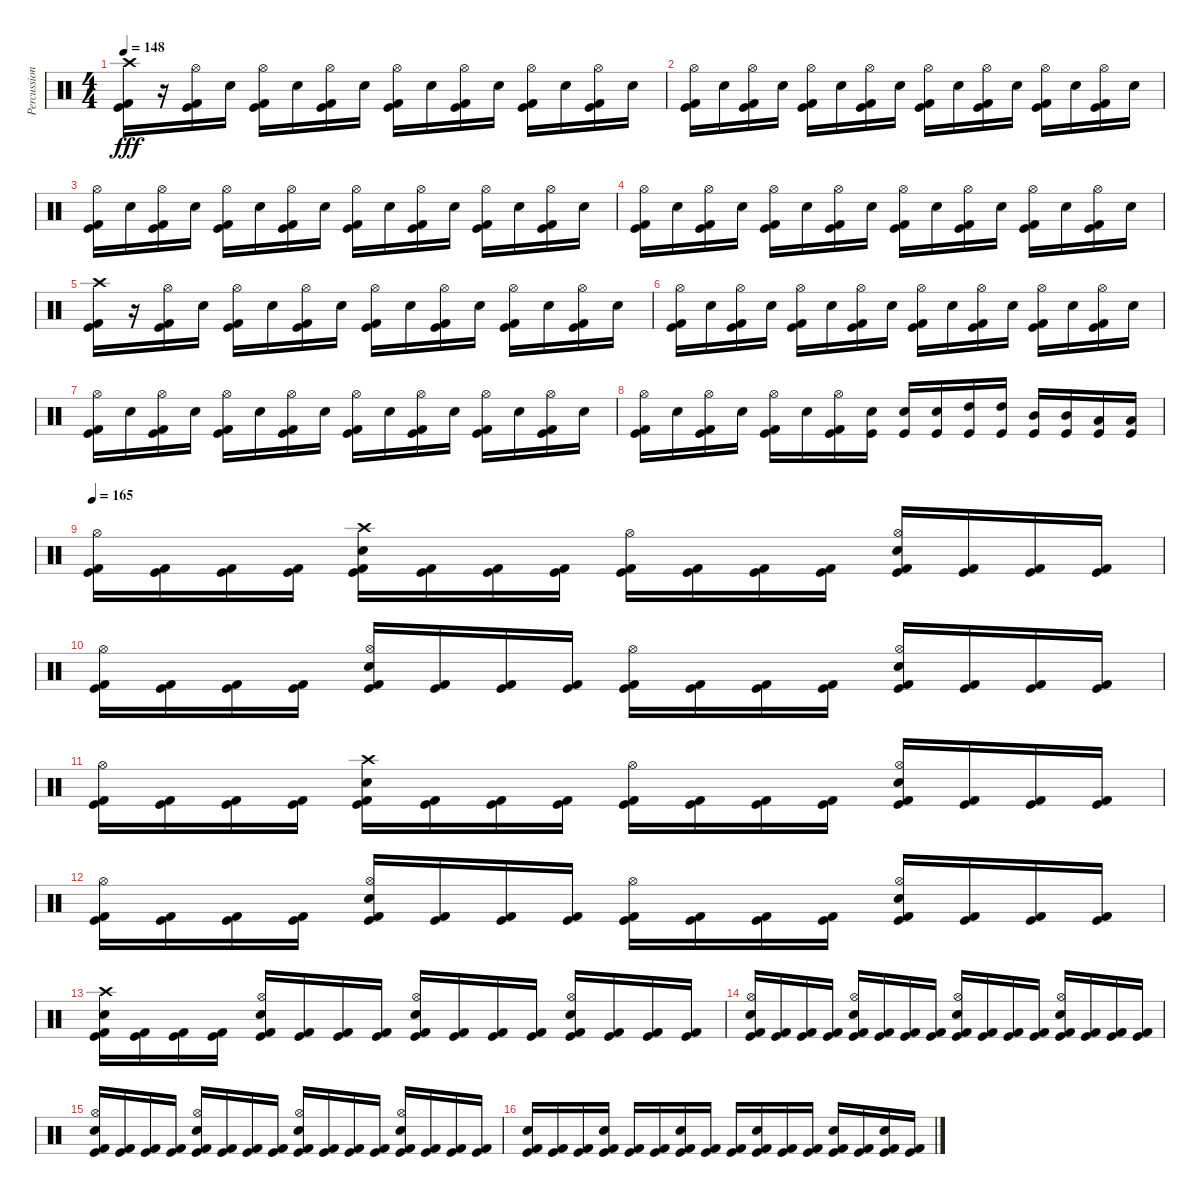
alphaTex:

\track ("Percussion" "Percussion") {instrument percussion}
\staff {score}
\articulation defaults
\ts (4 4)
\tempo 148
\clef neutral
\ks c
("Crash high (hit)" "Kick (hit) 2" "Kick (hit)").16{dy fff} r.16 ("Hi-Hat (open)" "Kick (hit) 2" "Kick (hit)").16 "Electric Snare (hit)".16 ("Hi-Hat (open)" "Kick (hit) 2" "Kick (hit)").16 "Electric Snare (hit)".16 ("Hi-Hat (open)" "Kick (hit) 2" "Kick (hit)").16 "Electric Snare (hit)".16 ("Hi-Hat (open)" "Kick (hit) 2" "Kick (hit)").16 "Electric Snare (hit)".16 ("Hi-Hat (open)" "Kick (hit) 2" "Kick (hit)").16 "Electric Snare (hit)".16 ("Hi-Hat (open)" "Kick (hit) 2" "Kick (hit)").16 "Electric Snare (hit)".16 ("Hi-Hat (open)" "Kick (hit) 2" "Kick (hit)").16 "Electric Snare (hit)".16 |
("Hi-Hat (open)" "Kick (hit) 2" "Kick (hit)").16 "Electric Snare (hit)".16 ("Hi-Hat (open)" "Kick (hit) 2" "Kick (hit)").16 "Electric Snare (hit)".16 ("Hi-Hat (open)" "Kick (hit) 2" "Kick (hit)").16 "Electric Snare (hit)".16 ("Hi-Hat (open)" "Kick (hit) 2" "Kick (hit)").16 "Electric Snare (hit)".16 ("Hi-Hat (open)" "Kick (hit) 2" "Kick (hit)").16 "Electric Snare (hit)".16 ("Hi-Hat (open)" "Kick (hit) 2" "Kick (hit)").16 "Electric Snare (hit)".16 ("Hi-Hat (open)" "Kick (hit) 2" "Kick (hit)").16 "Electric Snare (hit)".16 ("Hi-Hat (open)" "Kick (hit) 2" "Kick (hit)").16 "Electric Snare (hit)".16 |
("Hi-Hat (open)" "Kick (hit) 2" "Kick (hit)").16 "Electric Snare (hit)".16 ("Hi-Hat (open)" "Kick (hit) 2" "Kick (hit)").16 "Electric Snare (hit)".16 ("Hi-Hat (open)" "Kick (hit) 2" "Kick (hit)").16 "Electric Snare (hit)".16 ("Hi-Hat (open)" "Kick (hit) 2" "Kick (hit)").16 "Electric Snare (hit)".16 ("Hi-Hat (open)" "Kick (hit) 2" "Kick (hit)").16 "Electric Snare (hit)".16 ("Hi-Hat (open)" "Kick (hit) 2" "Kick (hit)").16 "Electric Snare (hit)".16 ("Hi-Hat (open)" "Kick (hit) 2" "Kick (hit)").16 "Electric Snare (hit)".16 ("Hi-Hat (open)" "Kick (hit) 2" "Kick (hit)").16 "Electric Snare (hit)".16 |
("Hi-Hat (open)" "Kick (hit) 2" "Kick (hit)").16 "Electric Snare (hit)".16 ("Hi-Hat (open)" "Kick (hit) 2" "Kick (hit)").16 "Electric Snare (hit)".16 ("Hi-Hat (open)" "Kick (hit) 2" "Kick (hit)").16 "Electric Snare (hit)".16 ("Hi-Hat (open)" "Kick (hit) 2" "Kick (hit)").16 "Electric Snare (hit)".16 ("Hi-Hat (open)" "Kick (hit) 2" "Kick (hit)").16 "Electric Snare (hit)".16 ("Hi-Hat (open)" "Kick (hit) 2" "Kick (hit)").16 "Electric Snare (hit)".16 ("Hi-Hat (open)" "Kick (hit) 2" "Kick (hit)").16 "Electric Snare (hit)".16 ("Hi-Hat (open)" "Kick (hit) 2" "Kick (hit)").16 "Electric Snare (hit)".16 |
("Crash high (hit)" "Kick (hit) 2" "Kick (hit)").16 r.16 ("Hi-Hat (open)" "Kick (hit) 2" "Kick (hit)").16 "Electric Snare (hit)".16 ("Hi-Hat (open)" "Kick (hit) 2" "Kick (hit)").16 "Electric Snare (hit)".16 ("Hi-Hat (open)" "Kick (hit) 2" "Kick (hit)").16 "Electric Snare (hit)".16 ("Hi-Hat (open)" "Kick (hit) 2" "Kick (hit)").16 "Electric Snare (hit)".16 ("Hi-Hat (open)" "Kick (hit) 2" "Kick (hit)").16 "Electric Snare (hit)".16 ("Hi-Hat (open)" "Kick (hit) 2" "Kick (hit)").16 "Electric Snare (hit)".16 ("Hi-Hat (open)" "Kick (hit) 2" "Kick (hit)").16 "Electric Snare (hit)".16 |
("Hi-Hat (open)" "Kick (hit) 2" "Kick (hit)").16 "Electric Snare (hit)".16 ("Hi-Hat (open)" "Kick (hit) 2" "Kick (hit)").16 "Electric Snare (hit)".16 ("Hi-Hat (open)" "Kick (hit) 2" "Kick (hit)").16 "Electric Snare (hit)".16 ("Hi-Hat (open)" "Kick (hit) 2" "Kick (hit)").16 "Electric Snare (hit)".16 ("Hi-Hat (open)" "Kick (hit) 2" "Kick (hit)").16 "Electric Snare (hit)".16 ("Hi-Hat (open)" "Kick (hit) 2" "Kick (hit)").16 "Electric Snare (hit)".16 ("Hi-Hat (open)" "Kick (hit) 2" "Kick (hit)").16 "Electric Snare (hit)".16 ("Hi-Hat (open)" "Kick (hit) 2" "Kick (hit)").16 "Electric Snare (hit)".16 |
("Hi-Hat (open)" "Kick (hit) 2" "Kick (hit)").16 "Electric Snare (hit)".16 ("Hi-Hat (open)" "Kick (hit) 2" "Kick (hit)").16 "Electric Snare (hit)".16 ("Hi-Hat (open)" "Kick (hit) 2" "Kick (hit)").16 "Electric Snare (hit)".16 ("Hi-Hat (open)" "Kick (hit) 2" "Kick (hit)").16 "Electric Snare (hit)".16 ("Hi-Hat (open)" "Kick (hit) 2" "Kick (hit)").16 "Electric Snare (hit)".16 ("Hi-Hat (open)" "Kick (hit) 2" "Kick (hit)").16 "Electric Snare (hit)".16 ("Hi-Hat (open)" "Kick (hit) 2" "Kick (hit)").16 "Electric Snare (hit)".16 ("Hi-Hat (open)" "Kick (hit) 2" "Kick (hit)").16 "Electric Snare (hit)".16 |
("Hi-Hat (open)" "Kick (hit) 2" "Kick (hit)").16 "Electric Snare (hit)".16 ("Hi-Hat (open)" "Kick (hit) 2" "Kick (hit)").16 "Electric Snare (hit)".16 ("Hi-Hat (open)" "Kick (hit) 2" "Kick (hit)").16 "Electric Snare (hit)".16 ("Hi-Hat (open)" "Kick (hit) 2" "Kick (hit)").16 ("Electric Snare (hit)" "Kick (hit)").16 ("Electric Snare (hit)" "Kick (hit)").16 ("Electric Snare (hit)" "Kick (hit)").16 ("High Tom (hit)" "Kick (hit)").16 ("High Tom (hit)" "Kick (hit)").16 ("Mid Tom (hit)" "Kick (hit)").16 ("Mid Tom (hit)" "Kick (hit)").16 ("Low Tom (hit)" "Kick (hit)").16 ("Low Tom (hit)" "Kick (hit)").16 |
\tempo 165
("Hi-Hat (open)" "Kick (hit) 2" "Kick (hit)").16 ("Kick (hit) 2" "Kick (hit)").16 ("Kick (hit) 2" "Kick (hit)").16 ("Kick (hit) 2" "Kick (hit)").16 ("Crash high (hit)" "Electric Snare (hit)" "Kick (hit) 2" "Kick (hit)").16 ("Kick (hit) 2" "Kick (hit)").16 ("Kick (hit) 2" "Kick (hit)").16 ("Kick (hit) 2" "Kick (hit)").16 ("Hi-Hat (open)" "Kick (hit) 2" "Kick (hit)").16 ("Kick (hit) 2" "Kick (hit)").16 ("Kick (hit) 2" "Kick (hit)").16 ("Kick (hit) 2" "Kick (hit)").16 ("Hi-Hat (open)" "Electric Snare (hit)" "Kick (hit) 2" "Kick (hit)").16 ("Kick (hit) 2" "Kick (hit)").16 ("Kick (hit) 2" "Kick (hit)").16 ("Kick (hit) 2" "Kick (hit)").16 |
("Hi-Hat (open)" "Kick (hit) 2" "Kick (hit)").16 ("Kick (hit) 2" "Kick (hit)").16 ("Kick (hit) 2" "Kick (hit)").16 ("Kick (hit) 2" "Kick (hit)").16 ("Hi-Hat (open)" "Electric Snare (hit)" "Kick (hit) 2" "Kick (hit)").16 ("Kick (hit) 2" "Kick (hit)").16 ("Kick (hit) 2" "Kick (hit)").16 ("Kick (hit) 2" "Kick (hit)").16 ("Hi-Hat (open)" "Kick (hit) 2" "Kick (hit)").16 ("Kick (hit) 2" "Kick (hit)").16 ("Kick (hit) 2" "Kick (hit)").16 ("Kick (hit) 2" "Kick (hit)").16 ("Hi-Hat (open)" "Electric Snare (hit)" "Kick (hit) 2" "Kick (hit)").16 ("Kick (hit) 2" "Kick (hit)").16 ("Kick (hit) 2" "Kick (hit)").16 ("Kick (hit) 2" "Kick (hit)").16 |
("Hi-Hat (open)" "Kick (hit) 2" "Kick (hit)").16 ("Kick (hit) 2" "Kick (hit)").16 ("Kick (hit) 2" "Kick (hit)").16 ("Kick (hit) 2" "Kick (hit)").16 ("Crash high (hit)" "Electric Snare (hit)" "Kick (hit) 2" "Kick (hit)").16 ("Kick (hit) 2" "Kick (hit)").16 ("Kick (hit) 2" "Kick (hit)").16 ("Kick (hit) 2" "Kick (hit)").16 ("Hi-Hat (open)" "Kick (hit) 2" "Kick (hit)").16 ("Kick (hit) 2" "Kick (hit)").16 ("Kick (hit) 2" "Kick (hit)").16 ("Kick (hit) 2" "Kick (hit)").16 ("Hi-Hat (open)" "Electric Snare (hit)" "Kick (hit) 2" "Kick (hit)").16 ("Kick (hit) 2" "Kick (hit)").16 ("Kick (hit) 2" "Kick (hit)").16 ("Kick (hit) 2" "Kick (hit)").16 |
("Hi-Hat (open)" "Kick (hit) 2" "Kick (hit)").16 ("Kick (hit) 2" "Kick (hit)").16 ("Kick (hit) 2" "Kick (hit)").16 ("Kick (hit) 2" "Kick (hit)").16 ("Hi-Hat (open)" "Electric Snare (hit)" "Kick (hit) 2" "Kick (hit)").16 ("Kick (hit) 2" "Kick (hit)").16 ("Kick (hit) 2" "Kick (hit)").16 ("Kick (hit) 2" "Kick (hit)").16 ("Hi-Hat (open)" "Kick (hit) 2" "Kick (hit)").16 ("Kick (hit) 2" "Kick (hit)").16 ("Kick (hit) 2" "Kick (hit)").16 ("Kick (hit) 2" "Kick (hit)").16 ("Hi-Hat (open)" "Electric Snare (hit)" "Kick (hit) 2" "Kick (hit)").16 ("Kick (hit) 2" "Kick (hit)").16 ("Kick (hit) 2" "Kick (hit)").16 ("Kick (hit) 2" "Kick (hit)").16 |
("Crash high (hit)" "Electric Snare (hit)" "Kick (hit) 2" "Kick (hit)").16 ("Kick (hit) 2" "Kick (hit)").16 ("Kick (hit) 2" "Kick (hit)").16 ("Kick (hit) 2" "Kick (hit)").16 ("Hi-Hat (open)" "Electric Snare (hit)" "Kick (hit) 2" "Kick (hit)").16 ("Kick (hit) 2" "Kick (hit)").16 ("Kick (hit) 2" "Kick (hit)").16 ("Kick (hit) 2" "Kick (hit)").16 ("Hi-Hat (open)" "Electric Snare (hit)" "Kick (hit) 2" "Kick (hit)").16 ("Kick (hit) 2" "Kick (hit)").16 ("Kick (hit) 2" "Kick (hit)").16 ("Kick (hit) 2" "Kick (hit)").16 ("Hi-Hat (open)" "Electric Snare (hit)" "Kick (hit) 2" "Kick (hit)").16 ("Kick (hit) 2" "Kick (hit)").16 ("Kick (hit) 2" "Kick (hit)").16 ("Kick (hit) 2" "Kick (hit)").16 |
("Hi-Hat (open)" "Electric Snare (hit)" "Kick (hit) 2" "Kick (hit)").16 ("Kick (hit) 2" "Kick (hit)").16 ("Kick (hit) 2" "Kick (hit)").16 ("Kick (hit) 2" "Kick (hit)").16 ("Hi-Hat (open)" "Electric Snare (hit)" "Kick (hit) 2" "Kick (hit)").16 ("Kick (hit) 2" "Kick (hit)").16 ("Kick (hit) 2" "Kick (hit)").16 ("Kick (hit) 2" "Kick (hit)").16 ("Hi-Hat (open)" "Electric Snare (hit)" "Kick (hit) 2" "Kick (hit)").16 ("Kick (hit) 2" "Kick (hit)").16 ("Kick (hit) 2" "Kick (hit)").16 ("Kick (hit) 2" "Kick (hit)").16 ("Hi-Hat (open)" "Electric Snare (hit)" "Kick (hit) 2" "Kick (hit)").16 ("Kick (hit) 2" "Kick (hit)").16 ("Kick (hit) 2" "Kick (hit)").16 ("Kick (hit) 2" "Kick (hit)").16 |
("Hi-Hat (open)" "Electric Snare (hit)" "Kick (hit) 2" "Kick (hit)").16 ("Kick (hit) 2" "Kick (hit)").16 ("Kick (hit) 2" "Kick (hit)").16 ("Kick (hit) 2" "Kick (hit)").16 ("Hi-Hat (open)" "Electric Snare (hit)" "Kick (hit) 2" "Kick (hit)").16 ("Kick (hit) 2" "Kick (hit)").16 ("Kick (hit) 2" "Kick (hit)").16 ("Kick (hit) 2" "Kick (hit)").16 ("Hi-Hat (open)" "Electric Snare (hit)" "Kick (hit) 2" "Kick (hit)").16 ("Kick (hit) 2" "Kick (hit)").16 ("Kick (hit) 2" "Kick (hit)").16 ("Kick (hit) 2" "Kick (hit)").16 ("Hi-Hat (open)" "Electric Snare (hit)" "Kick (hit) 2" "Kick (hit)").16 ("Kick (hit) 2" "Kick (hit)").16 ("Kick (hit) 2" "Kick (hit)").16 ("Kick (hit) 2" "Kick (hit)").16 |
("Electric Snare (hit)" "Kick (hit) 2" "Kick (hit)").16 ("Kick (hit) 2" "Kick (hit)").16 ("Kick (hit) 2" "Kick (hit)").16 ("Electric Snare (hit)" "Kick (hit) 2" "Kick (hit)").16 ("Kick (hit) 2" "Kick (hit)").16 ("Kick (hit) 2" "Kick (hit)").16 ("Electric Snare (hit)" "Kick (hit) 2" "Kick (hit)").16 ("Kick (hit) 2" "Kick (hit)").16 ("Kick (hit) 2" "Kick (hit)").16 ("Electric Snare (hit)" "Kick (hit) 2" "Kick (hit)").16 ("Kick (hit) 2" "Kick (hit)").16 ("Kick (hit) 2" "Kick (hit)").16 ("Electric Snare (hit)" "Kick (hit) 2" "Kick (hit)").16 ("Kick (hit) 2" "Kick (hit)").16 ("Electric Snare (hit)" "Kick (hit) 2" "Kick (hit)").16 ("Kick (hit) 2" "Kick (hit)").16
